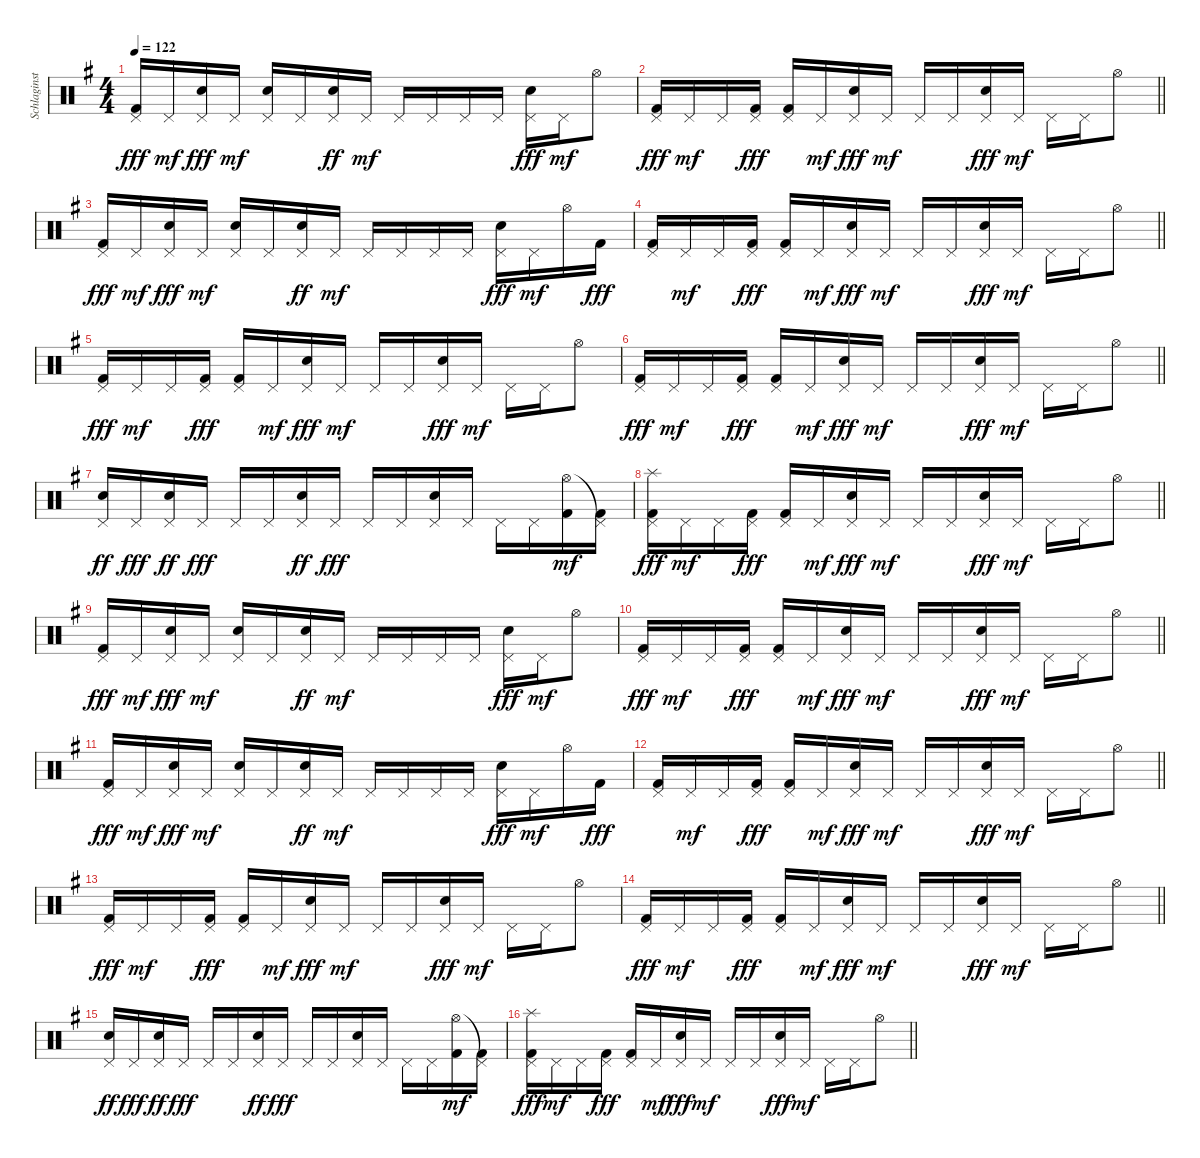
\track ("Schlaginstrumente - Auswahl" "Schlaginst") {instrument percussion}
\staff {score}
\articulation defaults
\ts (4 4)
\tempo 122
\clef neutral
\ks g
("Pedal Hi-Hat (hit)" "Kick (hit) 2").16{dy fff} "Pedal Hi-Hat (hit)".16{dy mf} ("Pedal Hi-Hat (hit)" "Electric Snare (hit)").16{dy fff} "Pedal Hi-Hat (hit)".16{dy mf} ("Pedal Hi-Hat (hit)" "Electric Snare (hit)").16 "Pedal Hi-Hat (hit)".16 ("Pedal Hi-Hat (hit)" "Electric Snare (hit)").16{dy ff} "Pedal Hi-Hat (hit)".16{dy mf} "Pedal Hi-Hat (hit)".16 "Pedal Hi-Hat (hit)".16 "Pedal Hi-Hat (hit)".16 "Pedal Hi-Hat (hit)".16 ("Pedal Hi-Hat (hit)" "Electric Snare (hit)").16{dy fff} "Pedal Hi-Hat (hit)".16{dy mf} "Hi-Hat (open)".8 |
\barLineRight lightlight
("Pedal Hi-Hat (hit)" "Kick (hit) 2").16{dy fff} "Pedal Hi-Hat (hit)".16{dy mf} "Pedal Hi-Hat (hit)".16 ("Pedal Hi-Hat (hit)" "Kick (hit) 2").16{dy fff} ("Pedal Hi-Hat (hit)" "Kick (hit) 2").16 "Pedal Hi-Hat (hit)".16{dy mf} ("Pedal Hi-Hat (hit)" "Electric Snare (hit)").16{dy fff} "Pedal Hi-Hat (hit)".16{dy mf} "Pedal Hi-Hat (hit)".16 "Pedal Hi-Hat (hit)".16 ("Pedal Hi-Hat (hit)" "Electric Snare (hit)").16{dy fff} "Pedal Hi-Hat (hit)".16{dy mf} "Pedal Hi-Hat (hit)".16 "Pedal Hi-Hat (hit)".16 "Hi-Hat (open)".8 |
("Pedal Hi-Hat (hit)" "Kick (hit) 2").16{dy fff} "Pedal Hi-Hat (hit)".16{dy mf} ("Pedal Hi-Hat (hit)" "Electric Snare (hit)").16{dy fff} "Pedal Hi-Hat (hit)".16{dy mf} ("Pedal Hi-Hat (hit)" "Electric Snare (hit)").16 "Pedal Hi-Hat (hit)".16 ("Pedal Hi-Hat (hit)" "Electric Snare (hit)").16{dy ff} "Pedal Hi-Hat (hit)".16{dy mf} "Pedal Hi-Hat (hit)".16 "Pedal Hi-Hat (hit)".16 "Pedal Hi-Hat (hit)".16 "Pedal Hi-Hat (hit)".16 ("Pedal Hi-Hat (hit)" "Electric Snare (hit)").16{dy fff} "Pedal Hi-Hat (hit)".16{dy mf} "Hi-Hat (open)".16 "Kick (hit) 2".16{dy fff} |
\barLineRight lightlight
("Pedal Hi-Hat (hit)" "Kick (hit) 2").16 "Pedal Hi-Hat (hit)".16{dy mf} "Pedal Hi-Hat (hit)".16 ("Pedal Hi-Hat (hit)" "Kick (hit) 2").16{dy fff} ("Pedal Hi-Hat (hit)" "Kick (hit) 2").16 "Pedal Hi-Hat (hit)".16{dy mf} ("Pedal Hi-Hat (hit)" "Electric Snare (hit)").16{dy fff} "Pedal Hi-Hat (hit)".16{dy mf} "Pedal Hi-Hat (hit)".16 "Pedal Hi-Hat (hit)".16 ("Pedal Hi-Hat (hit)" "Electric Snare (hit)").16{dy fff} "Pedal Hi-Hat (hit)".16{dy mf} "Pedal Hi-Hat (hit)".16 "Pedal Hi-Hat (hit)".16 "Hi-Hat (open)".8 |
("Pedal Hi-Hat (hit)" "Kick (hit) 2").16{dy fff} "Pedal Hi-Hat (hit)".16{dy mf} "Pedal Hi-Hat (hit)".16 ("Pedal Hi-Hat (hit)" "Kick (hit) 2").16{dy fff} ("Pedal Hi-Hat (hit)" "Kick (hit) 2").16 "Pedal Hi-Hat (hit)".16{dy mf} ("Pedal Hi-Hat (hit)" "Electric Snare (hit)").16{dy fff} "Pedal Hi-Hat (hit)".16{dy mf} "Pedal Hi-Hat (hit)".16 "Pedal Hi-Hat (hit)".16 ("Pedal Hi-Hat (hit)" "Electric Snare (hit)").16{dy fff} "Pedal Hi-Hat (hit)".16{dy mf} "Pedal Hi-Hat (hit)".16 "Pedal Hi-Hat (hit)".16 "Hi-Hat (open)".8 |
\barLineRight lightlight
("Pedal Hi-Hat (hit)" "Kick (hit) 2").16{dy fff} "Pedal Hi-Hat (hit)".16{dy mf} "Pedal Hi-Hat (hit)".16 ("Pedal Hi-Hat (hit)" "Kick (hit) 2").16{dy fff} ("Pedal Hi-Hat (hit)" "Kick (hit) 2").16 "Pedal Hi-Hat (hit)".16{dy mf} ("Pedal Hi-Hat (hit)" "Electric Snare (hit)").16{dy fff} "Pedal Hi-Hat (hit)".16{dy mf} "Pedal Hi-Hat (hit)".16 "Pedal Hi-Hat (hit)".16 ("Pedal Hi-Hat (hit)" "Electric Snare (hit)").16{dy fff} "Pedal Hi-Hat (hit)".16{dy mf} "Pedal Hi-Hat (hit)".16 "Pedal Hi-Hat (hit)".16 "Hi-Hat (open)".8 |
("Pedal Hi-Hat (hit)" "Electric Snare (hit)").16{dy ff} "Pedal Hi-Hat (hit)".16{dy fff} ("Pedal Hi-Hat (hit)" "Electric Snare (hit)").16{dy ff} "Pedal Hi-Hat (hit)".16{dy fff} "Pedal Hi-Hat (hit)".16 "Pedal Hi-Hat (hit)".16 ("Pedal Hi-Hat (hit)" "Electric Snare (hit)").16{dy ff} "Pedal Hi-Hat (hit)".16{dy fff} "Pedal Hi-Hat (hit)".16 "Pedal Hi-Hat (hit)".16 ("Pedal Hi-Hat (hit)" "Electric Snare (hit)").16 "Pedal Hi-Hat (hit)".16 "Pedal Hi-Hat (hit)".16 "Pedal Hi-Hat (hit)".16 ("Hi-Hat (open)" "Kick (hit) 2").16{dy mf} ("Pedal Hi-Hat (hit)"{t} "Kick (hit) 2").16 |
\barLineRight lightlight
("Splash (hit)" "Pedal Hi-Hat (hit)" "Kick (hit) 2").16{dy fff} "Pedal Hi-Hat (hit)".16{dy mf} "Pedal Hi-Hat (hit)".16 ("Pedal Hi-Hat (hit)" "Kick (hit) 2").16{dy fff} ("Pedal Hi-Hat (hit)" "Kick (hit) 2").16 "Pedal Hi-Hat (hit)".16{dy mf} ("Pedal Hi-Hat (hit)" "Electric Snare (hit)").16{dy fff} "Pedal Hi-Hat (hit)".16{dy mf} "Pedal Hi-Hat (hit)".16 "Pedal Hi-Hat (hit)".16 ("Pedal Hi-Hat (hit)" "Electric Snare (hit)").16{dy fff} "Pedal Hi-Hat (hit)".16{dy mf} "Pedal Hi-Hat (hit)".16 "Pedal Hi-Hat (hit)".16 "Hi-Hat (open)".8 |
("Pedal Hi-Hat (hit)" "Kick (hit) 2").16{dy fff} "Pedal Hi-Hat (hit)".16{dy mf} ("Pedal Hi-Hat (hit)" "Electric Snare (hit)").16{dy fff} "Pedal Hi-Hat (hit)".16{dy mf} ("Pedal Hi-Hat (hit)" "Electric Snare (hit)").16 "Pedal Hi-Hat (hit)".16 ("Pedal Hi-Hat (hit)" "Electric Snare (hit)").16{dy ff} "Pedal Hi-Hat (hit)".16{dy mf} "Pedal Hi-Hat (hit)".16 "Pedal Hi-Hat (hit)".16 "Pedal Hi-Hat (hit)".16 "Pedal Hi-Hat (hit)".16 ("Pedal Hi-Hat (hit)" "Electric Snare (hit)").16{dy fff} "Pedal Hi-Hat (hit)".16{dy mf} "Hi-Hat (open)".8 |
\barLineRight lightlight
("Pedal Hi-Hat (hit)" "Kick (hit) 2").16{dy fff} "Pedal Hi-Hat (hit)".16{dy mf} "Pedal Hi-Hat (hit)".16 ("Pedal Hi-Hat (hit)" "Kick (hit) 2").16{dy fff} ("Pedal Hi-Hat (hit)" "Kick (hit) 2").16 "Pedal Hi-Hat (hit)".16{dy mf} ("Pedal Hi-Hat (hit)" "Electric Snare (hit)").16{dy fff} "Pedal Hi-Hat (hit)".16{dy mf} "Pedal Hi-Hat (hit)".16 "Pedal Hi-Hat (hit)".16 ("Pedal Hi-Hat (hit)" "Electric Snare (hit)").16{dy fff} "Pedal Hi-Hat (hit)".16{dy mf} "Pedal Hi-Hat (hit)".16 "Pedal Hi-Hat (hit)".16 "Hi-Hat (open)".8 |
("Pedal Hi-Hat (hit)" "Kick (hit) 2").16{dy fff} "Pedal Hi-Hat (hit)".16{dy mf} ("Pedal Hi-Hat (hit)" "Electric Snare (hit)").16{dy fff} "Pedal Hi-Hat (hit)".16{dy mf} ("Pedal Hi-Hat (hit)" "Electric Snare (hit)").16 "Pedal Hi-Hat (hit)".16 ("Pedal Hi-Hat (hit)" "Electric Snare (hit)").16{dy ff} "Pedal Hi-Hat (hit)".16{dy mf} "Pedal Hi-Hat (hit)".16 "Pedal Hi-Hat (hit)".16 "Pedal Hi-Hat (hit)".16 "Pedal Hi-Hat (hit)".16 ("Pedal Hi-Hat (hit)" "Electric Snare (hit)").16{dy fff} "Pedal Hi-Hat (hit)".16{dy mf} "Hi-Hat (open)".16 "Kick (hit) 2".16{dy fff} |
\barLineRight lightlight
("Pedal Hi-Hat (hit)" "Kick (hit) 2").16 "Pedal Hi-Hat (hit)".16{dy mf} "Pedal Hi-Hat (hit)".16 ("Pedal Hi-Hat (hit)" "Kick (hit) 2").16{dy fff} ("Pedal Hi-Hat (hit)" "Kick (hit) 2").16 "Pedal Hi-Hat (hit)".16{dy mf} ("Pedal Hi-Hat (hit)" "Electric Snare (hit)").16{dy fff} "Pedal Hi-Hat (hit)".16{dy mf} "Pedal Hi-Hat (hit)".16 "Pedal Hi-Hat (hit)".16 ("Pedal Hi-Hat (hit)" "Electric Snare (hit)").16{dy fff} "Pedal Hi-Hat (hit)".16{dy mf} "Pedal Hi-Hat (hit)".16 "Pedal Hi-Hat (hit)".16 "Hi-Hat (open)".8 |
("Pedal Hi-Hat (hit)" "Kick (hit) 2").16{dy fff} "Pedal Hi-Hat (hit)".16{dy mf} "Pedal Hi-Hat (hit)".16 ("Pedal Hi-Hat (hit)" "Kick (hit) 2").16{dy fff} ("Pedal Hi-Hat (hit)" "Kick (hit) 2").16 "Pedal Hi-Hat (hit)".16{dy mf} ("Pedal Hi-Hat (hit)" "Electric Snare (hit)").16{dy fff} "Pedal Hi-Hat (hit)".16{dy mf} "Pedal Hi-Hat (hit)".16 "Pedal Hi-Hat (hit)".16 ("Pedal Hi-Hat (hit)" "Electric Snare (hit)").16{dy fff} "Pedal Hi-Hat (hit)".16{dy mf} "Pedal Hi-Hat (hit)".16 "Pedal Hi-Hat (hit)".16 "Hi-Hat (open)".8 |
\barLineRight lightlight
("Pedal Hi-Hat (hit)" "Kick (hit) 2").16{dy fff} "Pedal Hi-Hat (hit)".16{dy mf} "Pedal Hi-Hat (hit)".16 ("Pedal Hi-Hat (hit)" "Kick (hit) 2").16{dy fff} ("Pedal Hi-Hat (hit)" "Kick (hit) 2").16 "Pedal Hi-Hat (hit)".16{dy mf} ("Pedal Hi-Hat (hit)" "Electric Snare (hit)").16{dy fff} "Pedal Hi-Hat (hit)".16{dy mf} "Pedal Hi-Hat (hit)".16 "Pedal Hi-Hat (hit)".16 ("Pedal Hi-Hat (hit)" "Electric Snare (hit)").16{dy fff} "Pedal Hi-Hat (hit)".16{dy mf} "Pedal Hi-Hat (hit)".16 "Pedal Hi-Hat (hit)".16 "Hi-Hat (open)".8 |
("Pedal Hi-Hat (hit)" "Electric Snare (hit)").16{dy ff} "Pedal Hi-Hat (hit)".16{dy fff} ("Pedal Hi-Hat (hit)" "Electric Snare (hit)").16{dy ff} "Pedal Hi-Hat (hit)".16{dy fff} "Pedal Hi-Hat (hit)".16 "Pedal Hi-Hat (hit)".16 ("Pedal Hi-Hat (hit)" "Electric Snare (hit)").16{dy ff} "Pedal Hi-Hat (hit)".16{dy fff} "Pedal Hi-Hat (hit)".16 "Pedal Hi-Hat (hit)".16 ("Pedal Hi-Hat (hit)" "Electric Snare (hit)").16 "Pedal Hi-Hat (hit)".16 "Pedal Hi-Hat (hit)".16 "Pedal Hi-Hat (hit)".16 ("Hi-Hat (open)" "Kick (hit) 2").16{dy mf} ("Pedal Hi-Hat (hit)"{t} "Kick (hit) 2").16 |
\barLineRight lightlight
("Splash (hit)" "Pedal Hi-Hat (hit)" "Kick (hit) 2").16{dy fff} "Pedal Hi-Hat (hit)".16{dy mf} "Pedal Hi-Hat (hit)".16 ("Pedal Hi-Hat (hit)" "Kick (hit) 2").16{dy fff} ("Pedal Hi-Hat (hit)" "Kick (hit) 2").16 "Pedal Hi-Hat (hit)".16{dy mf} ("Pedal Hi-Hat (hit)" "Electric Snare (hit)").16{dy fff} "Pedal Hi-Hat (hit)".16{dy mf} "Pedal Hi-Hat (hit)".16 "Pedal Hi-Hat (hit)".16 ("Pedal Hi-Hat (hit)" "Electric Snare (hit)").16{dy fff} "Pedal Hi-Hat (hit)".16{dy mf} "Pedal Hi-Hat (hit)".16 "Pedal Hi-Hat (hit)".16 "Hi-Hat (open)".8
